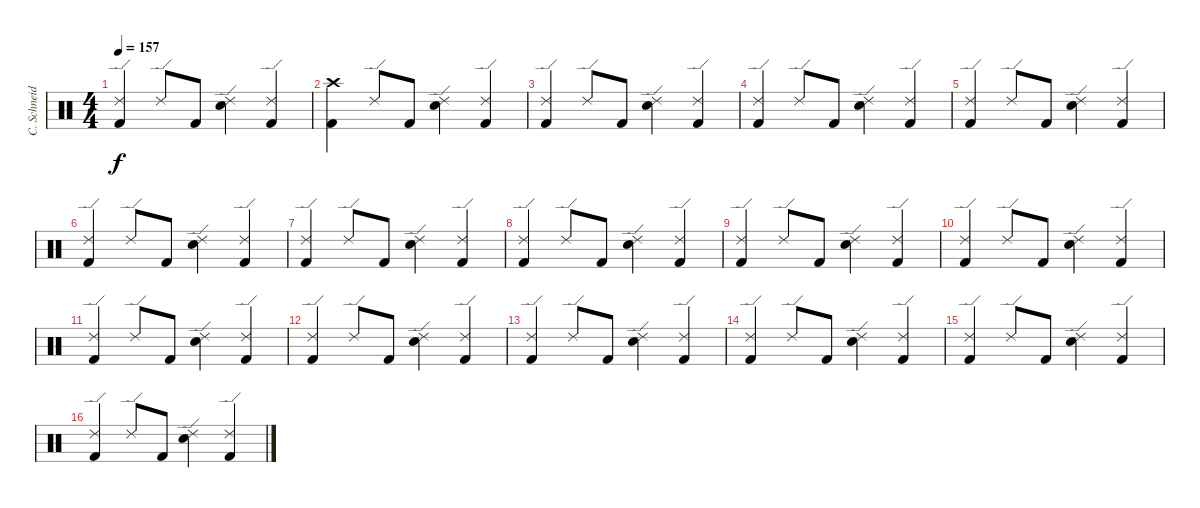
\track ("C. Schneider" "C. Schneid") {instrument percussion}
\staff {score}
\articulation defaults
\ts (4 4)
\tempo 157
\clef neutral
\ks c
("Kick (hit) 2" "Ride (edge) 2").4{dy f} "Ride (edge) 2".8 "Kick (hit) 2".8 ("Electric Snare (hit)" "Ride (edge) 2").4 ("Kick (hit) 2" "Ride (edge) 2").4 |
("Kick (hit) 2" "Crash high (hit)").4 "Ride (edge) 2".8 "Kick (hit) 2".8 ("Electric Snare (hit)" "Ride (edge) 2").4 ("Kick (hit) 2" "Ride (edge) 2").4 |
("Kick (hit) 2" "Ride (edge) 2").4 "Ride (edge) 2".8 "Kick (hit) 2".8 ("Electric Snare (hit)" "Ride (edge) 2").4 ("Kick (hit) 2" "Ride (edge) 2").4 |
("Kick (hit) 2" "Ride (edge) 2").4 "Ride (edge) 2".8 "Kick (hit) 2".8 ("Electric Snare (hit)" "Ride (edge) 2").4 ("Kick (hit) 2" "Ride (edge) 2").4 |
("Kick (hit) 2" "Ride (edge) 2").4 "Ride (edge) 2".8 "Kick (hit) 2".8 ("Electric Snare (hit)" "Ride (edge) 2").4 ("Kick (hit) 2" "Ride (edge) 2").4 |
("Kick (hit) 2" "Ride (edge) 2").4 "Ride (edge) 2".8 "Kick (hit) 2".8 ("Electric Snare (hit)" "Ride (edge) 2").4 ("Kick (hit) 2" "Ride (edge) 2").4 |
("Kick (hit) 2" "Ride (edge) 2").4 "Ride (edge) 2".8 "Kick (hit) 2".8 ("Electric Snare (hit)" "Ride (edge) 2").4 ("Kick (hit) 2" "Ride (edge) 2").4 |
("Kick (hit) 2" "Ride (edge) 2").4 "Ride (edge) 2".8 "Kick (hit) 2".8 ("Electric Snare (hit)" "Ride (edge) 2").4 ("Kick (hit) 2" "Ride (edge) 2").4 |
("Kick (hit) 2" "Ride (edge) 2").4 "Ride (edge) 2".8 "Kick (hit) 2".8 ("Electric Snare (hit)" "Ride (edge) 2").4 ("Kick (hit) 2" "Ride (edge) 2").4 |
("Kick (hit) 2" "Ride (edge) 2").4 "Ride (edge) 2".8 "Kick (hit) 2".8 ("Electric Snare (hit)" "Ride (edge) 2").4 ("Kick (hit) 2" "Ride (edge) 2").4 |
("Kick (hit) 2" "Ride (edge) 2").4 "Ride (edge) 2".8 "Kick (hit) 2".8 ("Electric Snare (hit)" "Ride (edge) 2").4 ("Kick (hit) 2" "Ride (edge) 2").4 |
("Kick (hit) 2" "Ride (edge) 2").4 "Ride (edge) 2".8 "Kick (hit) 2".8 ("Electric Snare (hit)" "Ride (edge) 2").4 ("Kick (hit) 2" "Ride (edge) 2").4 |
("Kick (hit) 2" "Ride (edge) 2").4 "Ride (edge) 2".8 "Kick (hit) 2".8 ("Electric Snare (hit)" "Ride (edge) 2").4 ("Kick (hit) 2" "Ride (edge) 2").4 |
("Kick (hit) 2" "Ride (edge) 2").4 "Ride (edge) 2".8 "Kick (hit) 2".8 ("Electric Snare (hit)" "Ride (edge) 2").4 ("Kick (hit) 2" "Ride (edge) 2").4 |
("Kick (hit) 2" "Ride (edge) 2").4 "Ride (edge) 2".8 "Kick (hit) 2".8 ("Electric Snare (hit)" "Ride (edge) 2").4 ("Kick (hit) 2" "Ride (edge) 2").4 |
("Kick (hit) 2" "Ride (edge) 2").4 "Ride (edge) 2".8 "Kick (hit) 2".8 ("Electric Snare (hit)" "Ride (edge) 2").4 ("Kick (hit) 2" "Ride (edge) 2").4
